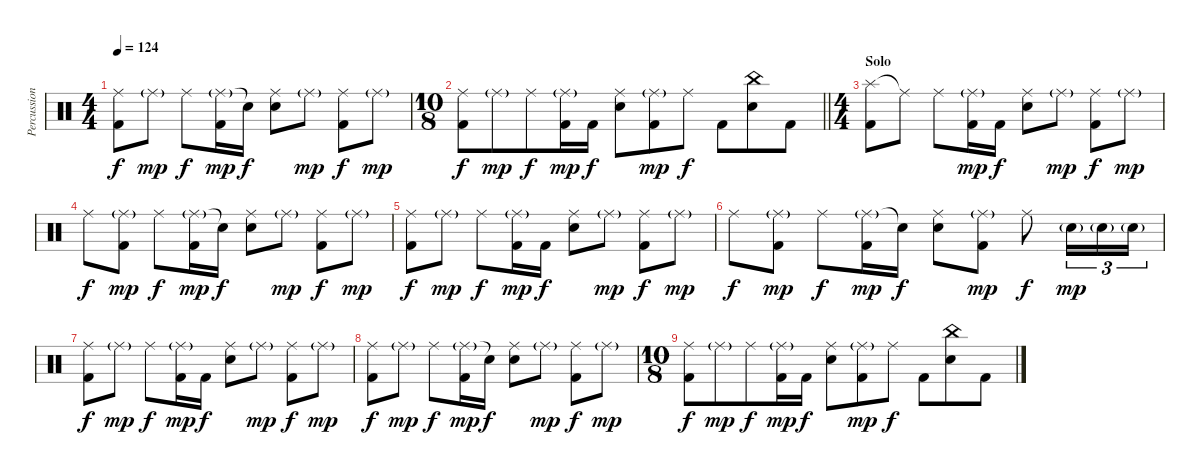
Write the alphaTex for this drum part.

\track ("Percussion" "Percussion") {instrument percussion}
\staff {score}
\articulation defaults
\ts (4 4)
\tempo 124
\clef neutral
\ks c
("Ride (middle)" "Kick (hit) 2").8{dy f} "Ride (middle)"{g}.8{dy mp} "Ride (middle)".8{dy f} ("Ride (middle)"{g} "Kick (hit) 2").16{dy mp} "Snare (hit)"{t}.16{dy f} ("Ride (middle)" "Electric Snare (hit)").8 "Ride (middle)"{g}.8{dy mp} ("Ride (middle)" "Kick (hit) 2").8{dy f} "Ride (middle)"{g}.8{dy mp} |
\ts (10 8)
\barLineRight lightlight
("Ride (middle)" "Kick (hit) 2").8{dy f} "Ride (middle)"{g}.8{dy mp} "Ride (middle)".8{dy f} ("Ride (middle)"{g} "Kick (hit) 2").16{dy mp} "Kick (hit) 2".16{dy f} ("Ride (middle)" "Electric Snare (hit)").8 ("Ride (middle)"{g} "Kick (hit) 2").8{dy mp} "Ride (middle)".8{dy f} "Kick (hit) 2".8 ("China (hit)" "Electric Snare (hit)").8 "Kick (hit) 2".8 |
\ts (4 4)
\section ("" "Solo")
("Splash (hit)" "Kick (hit) 2").8 "Ride (middle)"{t}.8 "Ride (middle)".8 ("Ride (middle)"{g} "Kick (hit) 2").16{dy mp} "Kick (hit) 2".16{dy f} ("Ride (middle)" "Electric Snare (hit)").8 "Ride (middle)"{g}.8{dy mp} ("Ride (middle)" "Kick (hit) 2").8{dy f} "Ride (middle)"{g}.8{dy mp} |
"Ride (middle)".8{dy f} ("Ride (middle)"{g} "Kick (hit) 2").8{dy mp} "Ride (middle)".8{dy f} ("Ride (middle)"{g} "Kick (hit) 2").16{dy mp} "Snare (hit)"{t}.16{dy f} ("Ride (middle)" "Electric Snare (hit)").8 "Ride (middle)"{g}.8{dy mp} ("Ride (middle)" "Kick (hit) 2").8{dy f} "Ride (middle)"{g}.8{dy mp} |
("Ride (middle)" "Kick (hit) 2").8{dy f} "Ride (middle)"{g}.8{dy mp} "Ride (middle)".8{dy f} ("Ride (middle)"{g} "Kick (hit) 2").16{dy mp} "Kick (hit) 2".16{dy f} ("Ride (middle)" "Electric Snare (hit)").8 "Ride (middle)"{g}.8{dy mp} ("Ride (middle)" "Kick (hit) 2").8{dy f} "Ride (middle)"{g}.8{dy mp} |
"Ride (middle)".8{dy f} ("Ride (middle)"{g} "Kick (hit) 2").8{dy mp} "Ride (middle)".8{dy f} ("Ride (middle)"{g} "Kick (hit) 2").16{dy mp} "Snare (hit)"{t}.16{dy f} ("Ride (middle)" "Electric Snare (hit)").8 ("Ride (middle)"{g} "Kick (hit) 2").8{dy mp} "Ride (middle)".8{dy f} "Electric Snare (hit)"{g}.16{tu (3 2) dy mp} "Electric Snare (hit)"{g}.16{tu (3 2)} "Electric Snare (hit)"{g}.16{tu (3 2)} |
("Ride (middle)" "Kick (hit) 2").8{dy f} "Ride (middle)"{g}.8{dy mp} "Ride (middle)".8{dy f} ("Ride (middle)"{g} "Kick (hit) 2").16{dy mp} "Kick (hit) 2".16{dy f} ("Ride (middle)" "Electric Snare (hit)").8 "Ride (middle)"{g}.8{dy mp} ("Ride (middle)" "Kick (hit) 2").8{dy f} "Ride (middle)"{g}.8{dy mp} |
("Ride (middle)" "Kick (hit) 2").8{dy f} "Ride (middle)"{g}.8{dy mp} "Ride (middle)".8{dy f} ("Ride (middle)"{g} "Kick (hit) 2").16{dy mp} "Snare (hit)"{t}.16{dy f} ("Ride (middle)" "Electric Snare (hit)").8 "Ride (middle)"{g}.8{dy mp} ("Ride (middle)" "Kick (hit) 2").8{dy f} "Ride (middle)"{g}.8{dy mp} |
\ts (10 8)
("Ride (middle)" "Kick (hit) 2").8{dy f} "Ride (middle)"{g}.8{dy mp} "Ride (middle)".8{dy f} ("Ride (middle)"{g} "Kick (hit) 2").16{dy mp} "Kick (hit) 2".16{dy f} ("Ride (middle)" "Electric Snare (hit)").8 ("Ride (middle)"{g} "Kick (hit) 2").8{dy mp} "Ride (middle)".8{dy f} "Kick (hit) 2".8 ("China (hit)" "Electric Snare (hit)").8 "Kick (hit) 2".8
